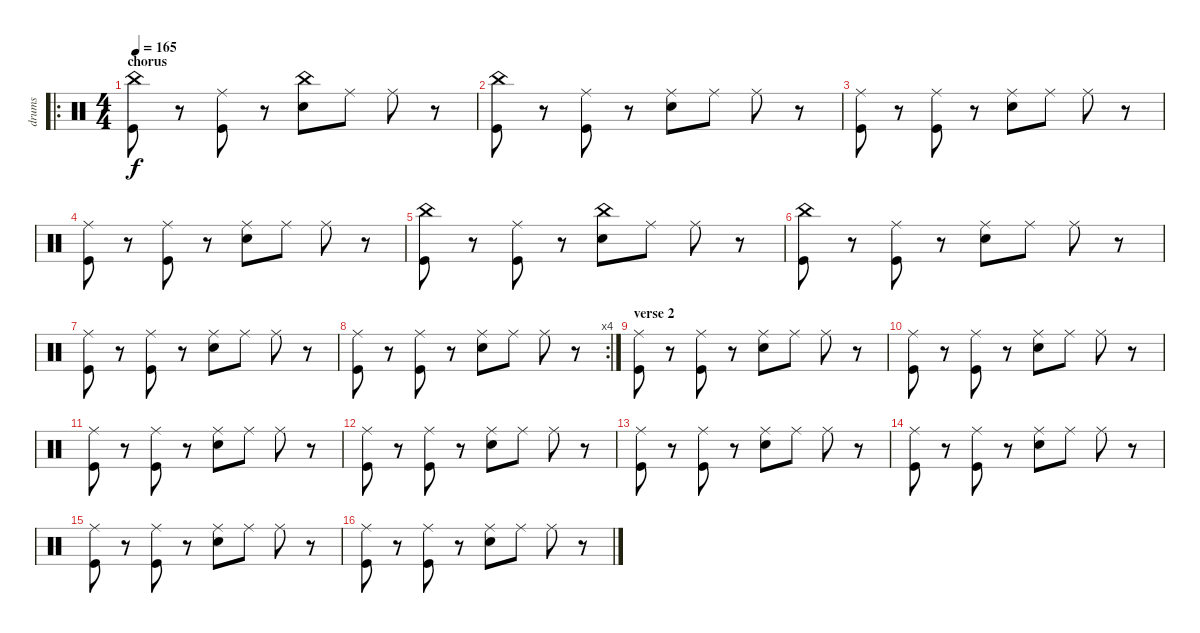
\track ("drums" "drums") {instrument percussion}
\staff {score}
\articulation defaults
\ro
\ts (4 4)
\section ("" "chorus")
\tempo 165
\clef neutral
\ks c
("Kick (hit)" "China (hit)").8{dy f} r.8 ("Kick (hit)" "Ride (middle)").8 r.8 ("Snare (hit) 2" "China (hit)").8 "Ride (middle)".8 "Ride (middle)".8 r.8 |
("Kick (hit)" "China (hit)").8 r.8 ("Kick (hit)" "Ride (middle)").8 r.8 ("Snare (hit) 2" "Ride (middle)").8 "Ride (middle)".8 "Ride (middle)".8 r.8 |
("Kick (hit)" "Ride (middle)").8 r.8 ("Kick (hit)" "Ride (middle)").8 r.8 ("Snare (hit) 2" "Ride (middle)").8 "Ride (middle)".8 "Ride (middle)".8 r.8 |
("Kick (hit)" "Ride (middle)").8 r.8 ("Kick (hit)" "Ride (middle)").8 r.8 ("Snare (hit) 2" "Ride (middle)").8 "Ride (middle)".8 "Ride (middle)".8 r.8 |
("Kick (hit)" "China (hit)").8 r.8 ("Kick (hit)" "Ride (middle)").8 r.8 ("Snare (hit) 2" "China (hit)").8 "Ride (middle)".8 "Ride (middle)".8 r.8 |
("Kick (hit)" "China (hit)").8 r.8 ("Kick (hit)" "Ride (middle)").8 r.8 ("Snare (hit) 2" "Ride (middle)").8 "Ride (middle)".8 "Ride (middle)".8 r.8 |
("Kick (hit)" "Ride (middle)").8 r.8 ("Kick (hit)" "Ride (middle)").8 r.8 ("Snare (hit) 2" "Ride (middle)").8 "Ride (middle)".8 "Ride (middle)".8 r.8 |
\rc 4
("Kick (hit)" "Ride (middle)").8 r.8 ("Kick (hit)" "Ride (middle)").8 r.8 ("Snare (hit) 2" "Ride (middle)").8 "Ride (middle)".8 "Ride (middle)".8 r.8 |
\section ("" "verse 2")
("Kick (hit)" "Ride (middle)").8 r.8 ("Kick (hit)" "Ride (middle)").8 r.8 ("Snare (hit) 2" "Ride (middle)").8 "Ride (middle)".8 "Ride (middle)".8 r.8 |
("Kick (hit)" "Ride (middle)").8 r.8 ("Kick (hit)" "Ride (middle)").8 r.8 ("Snare (hit) 2" "Ride (middle)").8 "Ride (middle)".8 "Ride (middle)".8 r.8 |
("Kick (hit)" "Ride (middle)").8 r.8 ("Kick (hit)" "Ride (middle)").8 r.8 ("Snare (hit) 2" "Ride (middle)").8 "Ride (middle)".8 "Ride (middle)".8 r.8 |
("Kick (hit)" "Ride (middle)").8 r.8 ("Kick (hit)" "Ride (middle)").8 r.8 ("Snare (hit) 2" "Ride (middle)").8 "Ride (middle)".8 "Ride (middle)".8 r.8 |
("Kick (hit)" "Ride (middle)").8 r.8 ("Kick (hit)" "Ride (middle)").8 r.8 ("Snare (hit) 2" "Ride (middle)").8 "Ride (middle)".8 "Ride (middle)".8 r.8 |
("Kick (hit)" "Ride (middle)").8 r.8 ("Kick (hit)" "Ride (middle)").8 r.8 ("Snare (hit) 2" "Ride (middle)").8 "Ride (middle)".8 "Ride (middle)".8 r.8 |
("Kick (hit)" "Ride (middle)").8 r.8 ("Kick (hit)" "Ride (middle)").8 r.8 ("Snare (hit) 2" "Ride (middle)").8 "Ride (middle)".8 "Ride (middle)".8 r.8 |
("Kick (hit)" "Ride (middle)").8 r.8 ("Kick (hit)" "Ride (middle)").8 r.8 ("Snare (hit) 2" "Ride (middle)").8 "Ride (middle)".8 "Ride (middle)".8 r.8
